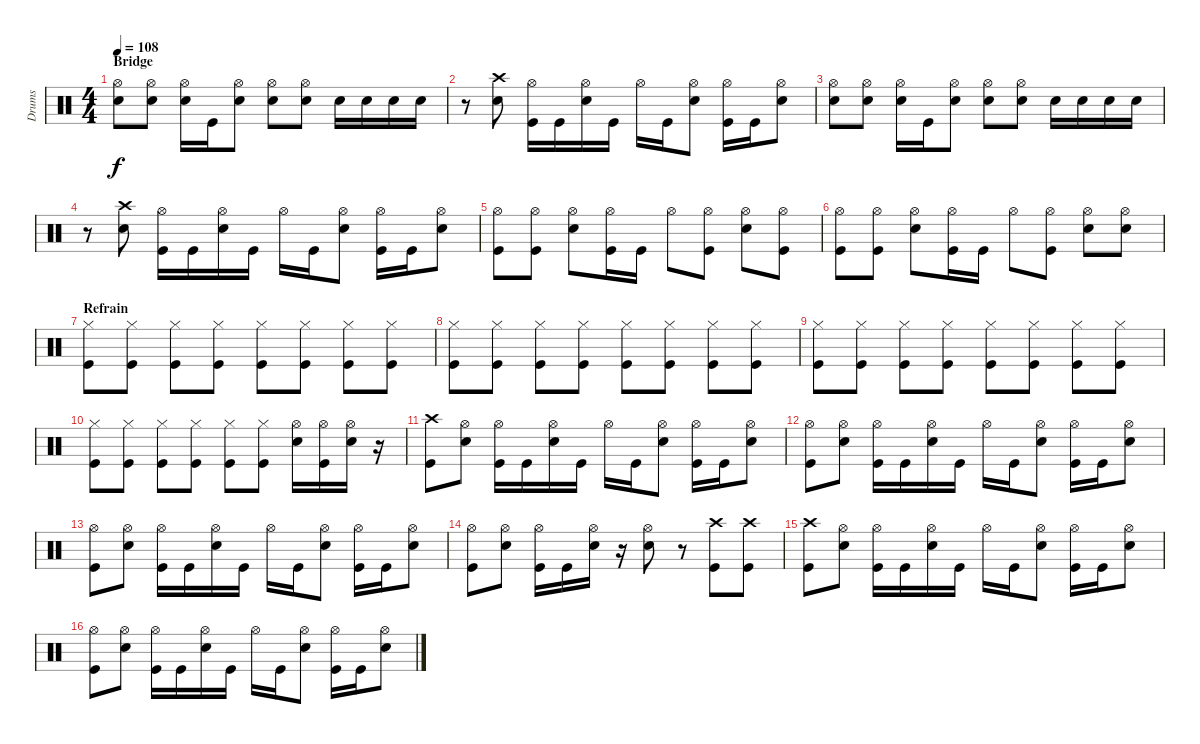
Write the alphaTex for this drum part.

\track ("Drums" "Drums") {instrument percussion}
\staff {score}
\articulation defaults
\ts (4 4)
\section ("" "Bridge")
\tempo 108
\clef neutral
\ks c
("Hi-Hat (open)" "Snare (hit) 2").8{dy f} ("Hi-Hat (open)" "Snare (hit) 2").8 ("Hi-Hat (open)" "Snare (hit) 2").16 "Kick (hit)".16 ("Hi-Hat (open)" "Snare (hit) 2").8 ("Hi-Hat (open)" "Snare (hit) 2").8 ("Hi-Hat (open)" "Snare (hit) 2").8 "Snare (hit) 2".16 "Snare (hit) 2".16 "Snare (hit) 2".16 "Snare (hit) 2".16 |
r.8 ("Crash high (hit)" "Snare (hit) 2").8 ("Hi-Hat (open)" "Kick (hit)").16 "Kick (hit)".16 ("Hi-Hat (open)" "Snare (hit) 2").16 "Kick (hit)".16 "Hi-Hat (open)".16 "Kick (hit)".16 ("Hi-Hat (open)" "Snare (hit) 2").8 ("Hi-Hat (open)" "Kick (hit)").16 "Kick (hit)".16 ("Hi-Hat (open)" "Snare (hit) 2").8 |
("Hi-Hat (open)" "Snare (hit) 2").8 ("Hi-Hat (open)" "Snare (hit) 2").8 ("Hi-Hat (open)" "Snare (hit) 2").16 "Kick (hit)".16 ("Hi-Hat (open)" "Snare (hit) 2").8 ("Hi-Hat (open)" "Snare (hit) 2").8 ("Hi-Hat (open)" "Snare (hit) 2").8 "Snare (hit) 2".16 "Snare (hit) 2".16 "Snare (hit) 2".16 "Snare (hit) 2".16 |
r.8 ("Crash high (hit)" "Snare (hit) 2").8 ("Hi-Hat (open)" "Kick (hit)").16 "Kick (hit)".16 ("Hi-Hat (open)" "Snare (hit) 2").16 "Kick (hit)".16 "Hi-Hat (open)".16 "Kick (hit)".16 ("Hi-Hat (open)" "Snare (hit) 2").8 ("Hi-Hat (open)" "Kick (hit)").16 "Kick (hit)".16 ("Hi-Hat (open)" "Snare (hit) 2").8 |
("Hi-Hat (open)" "Kick (hit)").8 ("Hi-Hat (open)" "Kick (hit)").8 ("Hi-Hat (open)" "Snare (hit) 2").8 ("Hi-Hat (open)" "Kick (hit)").16 "Kick (hit)".16 "Hi-Hat (open)".8 ("Hi-Hat (open)" "Kick (hit)").8 ("Hi-Hat (open)" "Snare (hit) 2").8 ("Hi-Hat (open)" "Kick (hit)").8 |
("Hi-Hat (open)" "Kick (hit)").8 ("Hi-Hat (open)" "Kick (hit)").8 ("Hi-Hat (open)" "Snare (hit) 2").8 ("Hi-Hat (open)" "Kick (hit)").16 "Kick (hit)".16 "Hi-Hat (open)".8 ("Hi-Hat (open)" "Kick (hit)").8 ("Hi-Hat (open)" "Snare (hit) 2").8 ("Hi-Hat (open)" "Snare (hit) 2").8 |
\section ("" "Refrain")
("Hi-Hat (closed)" "Kick (hit)").8 ("Hi-Hat (closed)" "Kick (hit)").8 ("Hi-Hat (closed)" "Kick (hit)").8 ("Hi-Hat (closed)" "Kick (hit)").8 ("Hi-Hat (closed)" "Kick (hit)").8 ("Hi-Hat (closed)" "Kick (hit)").8 ("Hi-Hat (closed)" "Kick (hit)").8 ("Hi-Hat (closed)" "Kick (hit)").8 |
("Hi-Hat (closed)" "Kick (hit)").8 ("Hi-Hat (closed)" "Kick (hit)").8 ("Hi-Hat (closed)" "Kick (hit)").8 ("Hi-Hat (closed)" "Kick (hit)").8 ("Hi-Hat (closed)" "Kick (hit)").8 ("Hi-Hat (closed)" "Kick (hit)").8 ("Hi-Hat (closed)" "Kick (hit)").8 ("Hi-Hat (closed)" "Kick (hit)").8 |
("Hi-Hat (closed)" "Kick (hit)").8 ("Hi-Hat (closed)" "Kick (hit)").8 ("Hi-Hat (closed)" "Kick (hit)").8 ("Hi-Hat (closed)" "Kick (hit)").8 ("Hi-Hat (closed)" "Kick (hit)").8 ("Hi-Hat (closed)" "Kick (hit)").8 ("Hi-Hat (closed)" "Kick (hit)").8 ("Hi-Hat (closed)" "Kick (hit)").8 |
("Hi-Hat (closed)" "Kick (hit)").8 ("Hi-Hat (closed)" "Kick (hit)").8 ("Hi-Hat (closed)" "Kick (hit)").8 ("Hi-Hat (closed)" "Kick (hit)").8 ("Hi-Hat (closed)" "Kick (hit)").8 ("Hi-Hat (closed)" "Kick (hit)").8 ("Hi-Hat (open)" "Snare (hit) 2").16 ("Hi-Hat (open)" "Kick (hit)").16 ("Hi-Hat (open)" "Snare (hit) 2").16 r.16 |
("Crash high (hit)" "Kick (hit)").8 ("Hi-Hat (open)" "Snare (hit) 2").8 ("Hi-Hat (open)" "Kick (hit)").16 "Kick (hit)".16 ("Hi-Hat (open)" "Snare (hit) 2").16 "Kick (hit)".16 "Hi-Hat (open)".16 "Kick (hit)".16 ("Hi-Hat (open)" "Snare (hit) 2").8 ("Hi-Hat (open)" "Kick (hit)").16 "Kick (hit)".16 ("Hi-Hat (open)" "Snare (hit) 2").8 |
("Hi-Hat (open)" "Kick (hit)").8 ("Hi-Hat (open)" "Snare (hit) 2").8 ("Hi-Hat (open)" "Kick (hit)").16 "Kick (hit)".16 ("Hi-Hat (open)" "Snare (hit) 2").16 "Kick (hit)".16 "Hi-Hat (open)".16 "Kick (hit)".16 ("Hi-Hat (open)" "Snare (hit) 2").8 ("Hi-Hat (open)" "Kick (hit)").16 "Kick (hit)".16 ("Hi-Hat (open)" "Snare (hit) 2").8 |
("Hi-Hat (open)" "Kick (hit)").8 ("Hi-Hat (open)" "Snare (hit) 2").8 ("Hi-Hat (open)" "Kick (hit)").16 "Kick (hit)".16 ("Hi-Hat (open)" "Snare (hit) 2").16 "Kick (hit)".16 "Hi-Hat (open)".16 "Kick (hit)".16 ("Hi-Hat (open)" "Snare (hit) 2").8 ("Hi-Hat (open)" "Kick (hit)").16 "Kick (hit)".16 ("Hi-Hat (open)" "Snare (hit) 2").8 |
("Hi-Hat (open)" "Kick (hit)").8 ("Hi-Hat (open)" "Snare (hit) 2").8 ("Hi-Hat (open)" "Kick (hit)").16 "Kick (hit)".16 ("Hi-Hat (open)" "Snare (hit) 2").16 r.16 ("Hi-Hat (open)" "Snare (hit) 2").8 r.8 ("Crash high (hit)" "Kick (hit)").8 ("Crash high (hit)" "Kick (hit)").8 |
("Crash high (hit)" "Kick (hit)").8 ("Hi-Hat (open)" "Snare (hit) 2").8 ("Hi-Hat (open)" "Kick (hit)").16 "Kick (hit)".16 ("Hi-Hat (open)" "Snare (hit) 2").16 "Kick (hit)".16 "Hi-Hat (open)".16 "Kick (hit)".16 ("Hi-Hat (open)" "Snare (hit) 2").8 ("Hi-Hat (open)" "Kick (hit)").16 "Kick (hit)".16 ("Hi-Hat (open)" "Snare (hit) 2").8 |
("Hi-Hat (open)" "Kick (hit)").8 ("Hi-Hat (open)" "Snare (hit) 2").8 ("Hi-Hat (open)" "Kick (hit)").16 "Kick (hit)".16 ("Hi-Hat (open)" "Snare (hit) 2").16 "Kick (hit)".16 "Hi-Hat (open)".16 "Kick (hit)".16 ("Hi-Hat (open)" "Snare (hit) 2").8 ("Hi-Hat (open)" "Kick (hit)").16 "Kick (hit)".16 ("Hi-Hat (open)" "Snare (hit) 2").8
